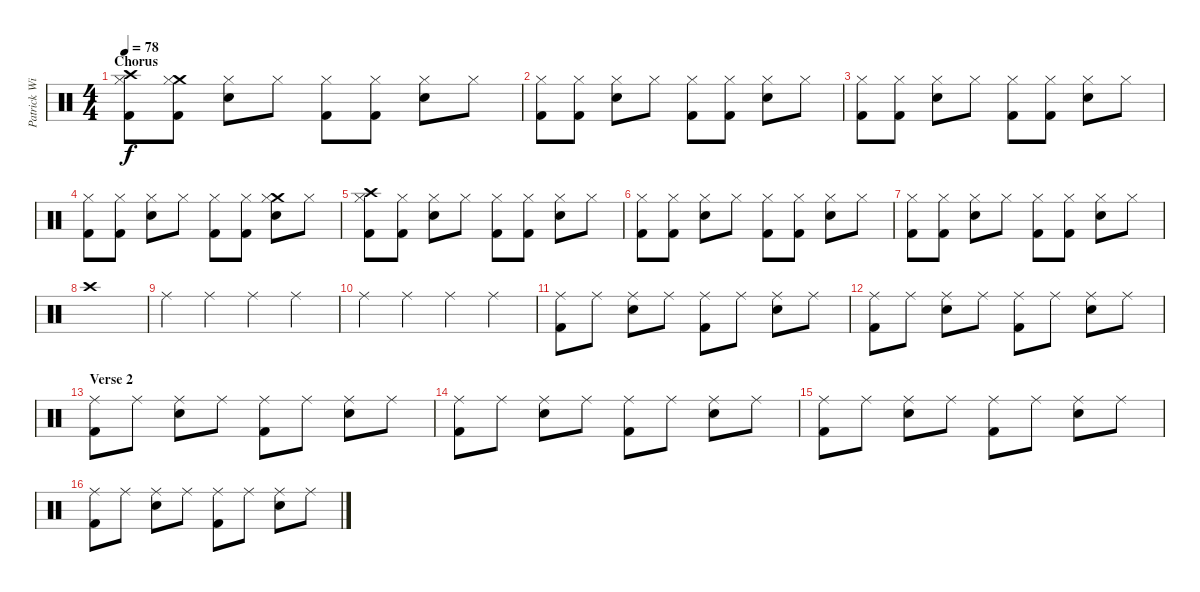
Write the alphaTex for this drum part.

\track ("Patrick Wilson" "Patrick Wi") {instrument percussion}
\staff {score}
\articulation defaults
\ts (4 4)
\section ("" "Chorus")
\tempo 78
\clef neutral
\ks c
("Crash high (hit)" "Kick (hit) 2" "Hi-Hat (closed)").8{dy f} ("Crash medium (hit)" "Kick (hit) 2" "Hi-Hat (closed)").8 ("Snare (hit) 2" "Hi-Hat (closed)").8 "Hi-Hat (closed)".8 ("Kick (hit) 2" "Hi-Hat (closed)").8 ("Kick (hit) 2" "Hi-Hat (closed)").8 ("Snare (hit) 2" "Hi-Hat (closed)").8 "Hi-Hat (closed)".8 |
("Kick (hit) 2" "Hi-Hat (closed)").8 ("Kick (hit) 2" "Hi-Hat (closed)").8 ("Snare (hit) 2" "Hi-Hat (closed)").8 "Hi-Hat (closed)".8 ("Kick (hit) 2" "Hi-Hat (closed)").8 ("Kick (hit) 2" "Hi-Hat (closed)").8 ("Snare (hit) 2" "Hi-Hat (closed)").8 "Hi-Hat (closed)".8 |
("Kick (hit) 2" "Hi-Hat (closed)").8 ("Kick (hit) 2" "Hi-Hat (closed)").8 ("Snare (hit) 2" "Hi-Hat (closed)").8 "Hi-Hat (closed)".8 ("Kick (hit) 2" "Hi-Hat (closed)").8 ("Kick (hit) 2" "Hi-Hat (closed)").8 ("Snare (hit) 2" "Hi-Hat (closed)").8 "Hi-Hat (closed)".8 |
("Kick (hit) 2" "Hi-Hat (closed)").8 ("Kick (hit) 2" "Hi-Hat (closed)").8 ("Snare (hit) 2" "Hi-Hat (closed)").8 "Hi-Hat (closed)".8 ("Kick (hit) 2" "Hi-Hat (closed)").8 ("Kick (hit) 2" "Hi-Hat (closed)").8 ("Crash medium (hit)" "Snare (hit) 2" "Hi-Hat (closed)").8 "Hi-Hat (closed)".8 |
("Crash high (hit)" "Kick (hit) 2" "Hi-Hat (closed)").8 ("Kick (hit) 2" "Hi-Hat (closed)").8 ("Snare (hit) 2" "Hi-Hat (closed)").8 "Hi-Hat (closed)".8 ("Kick (hit) 2" "Hi-Hat (closed)").8 ("Kick (hit) 2" "Hi-Hat (closed)").8 ("Snare (hit) 2" "Hi-Hat (closed)").8 "Hi-Hat (closed)".8 |
("Kick (hit) 2" "Hi-Hat (closed)").8 ("Kick (hit) 2" "Hi-Hat (closed)").8 ("Snare (hit) 2" "Hi-Hat (closed)").8 "Hi-Hat (closed)".8 ("Kick (hit) 2" "Hi-Hat (closed)").8 ("Kick (hit) 2" "Hi-Hat (closed)").8 ("Snare (hit) 2" "Hi-Hat (closed)").8 "Hi-Hat (closed)".8 |
("Kick (hit) 2" "Hi-Hat (closed)").8 ("Kick (hit) 2" "Hi-Hat (closed)").8 ("Snare (hit) 2" "Hi-Hat (closed)").8 "Hi-Hat (closed)".8 ("Kick (hit) 2" "Hi-Hat (closed)").8 ("Kick (hit) 2" "Hi-Hat (closed)").8 ("Snare (hit) 2" "Hi-Hat (closed)").8 "Hi-Hat (closed)".8 |
"Crash high (hit)".1 |
"Ride (middle)".4 "Ride (middle)".4 "Ride (middle)".4 "Ride (middle)".4 |
"Ride (middle)".4 "Ride (middle)".4 "Ride (middle)".4 "Ride (middle)".4 |
("Ride (middle)" "Kick (hit) 2").8 "Ride (middle)".8 ("Ride (middle)" "Snare (hit) 2").8 "Ride (middle)".8 ("Ride (middle)" "Kick (hit) 2").8 "Ride (middle)".8 ("Ride (middle)" "Snare (hit) 2").8 "Ride (middle)".8 |
("Ride (middle)" "Kick (hit) 2").8 "Ride (middle)".8 ("Ride (middle)" "Snare (hit) 2").8 "Ride (middle)".8 ("Ride (middle)" "Kick (hit) 2").8 "Ride (middle)".8 ("Ride (middle)" "Snare (hit) 2").8 "Ride (middle)".8 |
\section ("" "Verse 2")
("Ride (middle)" "Kick (hit) 2").8 "Ride (middle)".8 ("Ride (middle)" "Snare (hit) 2").8 "Ride (middle)".8 ("Ride (middle)" "Kick (hit) 2").8 "Ride (middle)".8 ("Ride (middle)" "Snare (hit) 2").8 "Ride (middle)".8 |
("Ride (middle)" "Kick (hit) 2").8 "Ride (middle)".8 ("Ride (middle)" "Snare (hit) 2").8 "Ride (middle)".8 ("Ride (middle)" "Kick (hit) 2").8 "Ride (middle)".8 ("Ride (middle)" "Snare (hit) 2").8 "Ride (middle)".8 |
("Ride (middle)" "Kick (hit) 2").8 "Ride (middle)".8 ("Ride (middle)" "Snare (hit) 2").8 "Ride (middle)".8 ("Ride (middle)" "Kick (hit) 2").8 "Ride (middle)".8 ("Ride (middle)" "Snare (hit) 2").8 "Ride (middle)".8 |
("Ride (middle)" "Kick (hit) 2").8 "Ride (middle)".8 ("Ride (middle)" "Snare (hit) 2").8 "Ride (middle)".8 ("Ride (middle)" "Kick (hit) 2").8 "Ride (middle)".8 ("Ride (middle)" "Snare (hit) 2").8 "Ride (middle)".8
